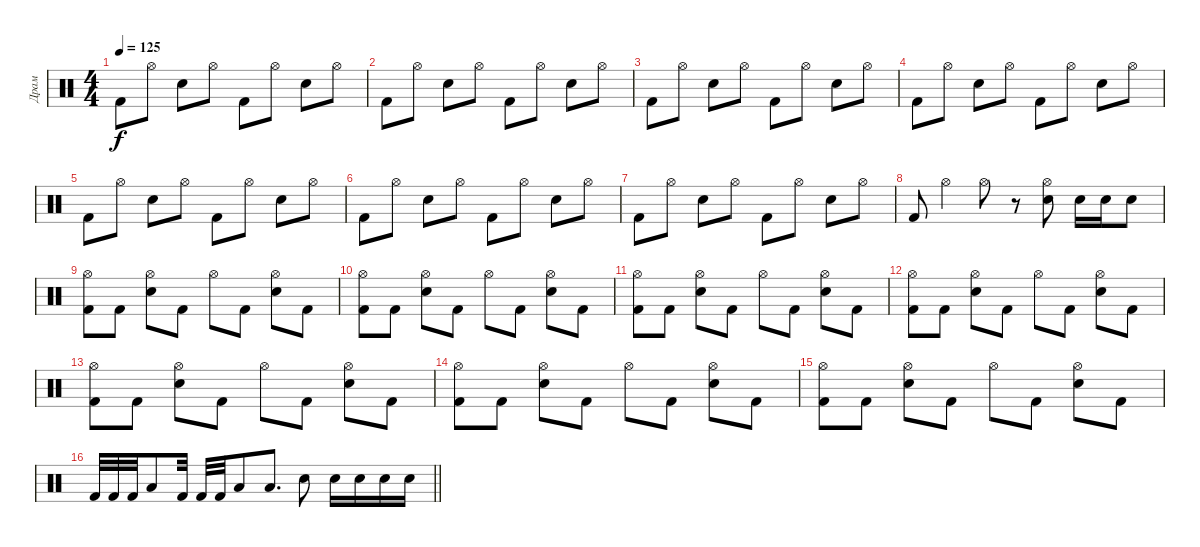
\track ("Драм" "Драм") {instrument percussion}
\staff {score}
\articulation defaults
\ts (4 4)
\tempo 125
\clef neutral
\ks c "Kick (hit) 2".8{dy f} "Hi-Hat (open)".8 "Snare (hit) 2".8 "Hi-Hat (open)".8 "Kick (hit) 2".8 "Hi-Hat (open)".8 "Snare (hit) 2".8 "Hi-Hat (open)".8
|
"Kick (hit) 2".8 "Hi-Hat (open)".8 "Snare (hit) 2".8 "Hi-Hat (open)".8 "Kick (hit) 2".8 "Hi-Hat (open)".8 "Snare (hit) 2".8 "Hi-Hat (open)".8 |
"Kick (hit) 2".8 "Hi-Hat (open)".8 "Snare (hit) 2".8 "Hi-Hat (open)".8 "Kick (hit) 2".8 "Hi-Hat (open)".8 "Snare (hit) 2".8 "Hi-Hat (open)".8 |
"Kick (hit) 2".8 "Hi-Hat (open)".8 "Snare (hit) 2".8 "Hi-Hat (open)".8 "Kick (hit) 2".8 "Hi-Hat (open)".8 "Snare (hit) 2".8 "Hi-Hat (open)".8 |
"Kick (hit) 2".8 "Hi-Hat (open)".8 "Snare (hit) 2".8 "Hi-Hat (open)".8 "Kick (hit) 2".8 "Hi-Hat (open)".8 "Snare (hit) 2".8 "Hi-Hat (open)".8 |
"Kick (hit) 2".8 "Hi-Hat (open)".8 "Snare (hit) 2".8 "Hi-Hat (open)".8 "Kick (hit) 2".8 "Hi-Hat (open)".8 "Snare (hit) 2".8 "Hi-Hat (open)".8 |
"Kick (hit) 2".8 "Hi-Hat (open)".8 "Snare (hit) 2".8 "Hi-Hat (open)".8 "Kick (hit) 2".8 "Hi-Hat (open)".8 "Snare (hit) 2".8 "Hi-Hat (open)".8 |
"Kick (hit) 2".8 "Hi-Hat (open)".4 "Hi-Hat (open)".8 r.8 ("Hi-Hat (open)" "Snare (hit) 2").8 "Snare (hit) 2".16 "Snare (hit) 2".16 "Snare (hit) 2".8 |
("Hi-Hat (open)" "Kick (hit) 2").8 "Kick (hit) 2".8 ("Hi-Hat (open)" "Snare (hit) 2").8 "Kick (hit) 2".8 "Hi-Hat (open)".8 "Kick (hit) 2".8 ("Hi-Hat (open)" "Snare (hit) 2").8 "Kick (hit) 2".8 |
("Hi-Hat (open)" "Kick (hit) 2").8 "Kick (hit) 2".8 ("Hi-Hat (open)" "Snare (hit) 2").8 "Kick (hit) 2".8 "Hi-Hat (open)".8 "Kick (hit) 2".8 ("Hi-Hat (open)" "Snare (hit) 2").8 "Kick (hit) 2".8 |
("Hi-Hat (open)" "Kick (hit) 2").8 "Kick (hit) 2".8 ("Hi-Hat (open)" "Snare (hit) 2").8 "Kick (hit) 2".8 "Hi-Hat (open)".8 "Kick (hit) 2".8 ("Hi-Hat (open)" "Snare (hit) 2").8 "Kick (hit) 2".8 |
("Hi-Hat (open)" "Kick (hit) 2").8 "Kick (hit) 2".8 ("Hi-Hat (open)" "Snare (hit) 2").8 "Kick (hit) 2".8 "Hi-Hat (open)".8 "Kick (hit) 2".8 ("Hi-Hat (open)" "Snare (hit) 2").8 "Kick (hit) 2".8 |
("Hi-Hat (open)" "Kick (hit) 2").8 "Kick (hit) 2".8 ("Hi-Hat (open)" "Snare (hit) 2").8 "Kick (hit) 2".8 "Hi-Hat (open)".8 "Kick (hit) 2".8 ("Hi-Hat (open)" "Snare (hit) 2").8 "Kick (hit) 2".8 |
("Hi-Hat (open)" "Kick (hit) 2").8 "Kick (hit) 2".8 ("Hi-Hat (open)" "Snare (hit) 2").8 "Kick (hit) 2".8 "Hi-Hat (open)".8 "Kick (hit) 2".8 ("Hi-Hat (open)" "Snare (hit) 2").8 "Kick (hit) 2".8 |
("Hi-Hat (open)" "Kick (hit) 2").8 "Kick (hit) 2".8 ("Hi-Hat (open)" "Snare (hit) 2").8 "Kick (hit) 2".8 "Hi-Hat (open)".8 "Kick (hit) 2".8 ("Hi-Hat (open)" "Snare (hit) 2").8 "Kick (hit) 2".8 |
\barLineRight lightlight "Kick (hit) 2".32 "Kick (hit) 2".32 "Kick (hit) 2".32 "Low Tom (hit)".8 "Kick (hit) 2".32 "Kick (hit) 2".32 "Kick (hit) 2".32 "Low Tom (hit)".8 "Low Tom (hit)".8{d} "Snare (hit) 2".8 "Snare (hit) 2".16 "Snare (hit) 2".16 "Snare (hit) 2".16 "Snare (hit) 2".16
